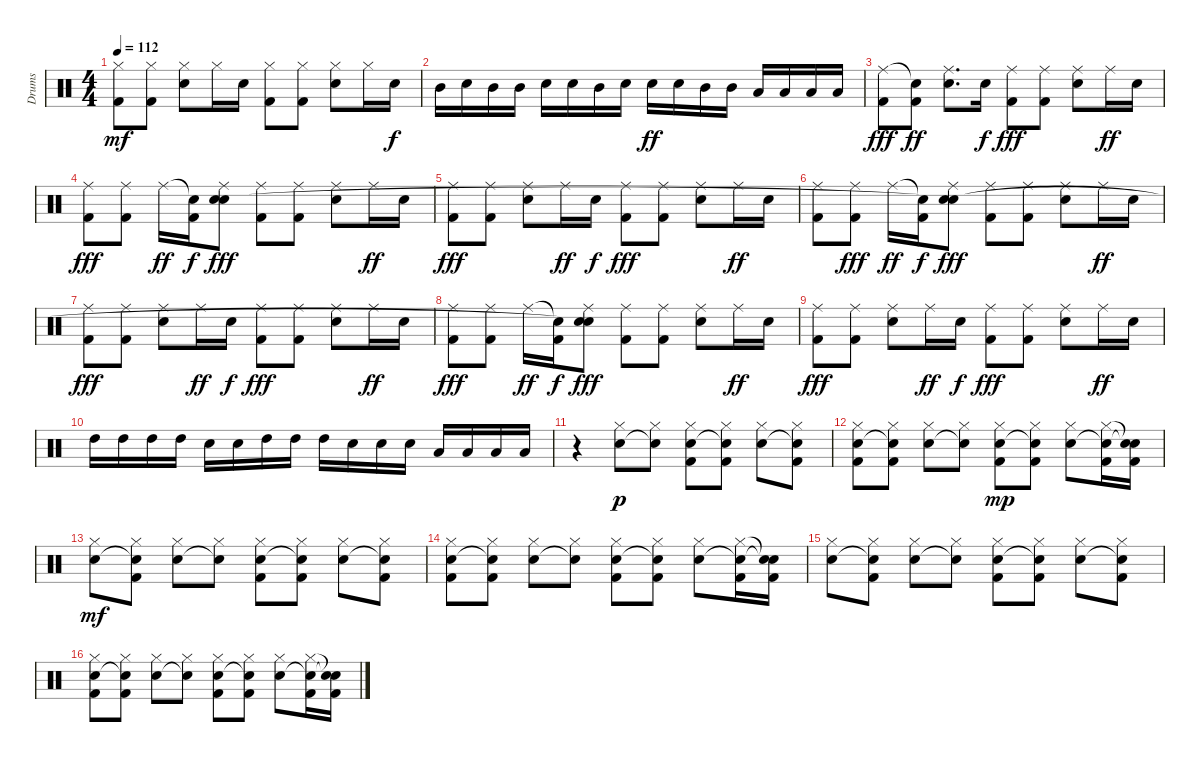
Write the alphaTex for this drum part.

\track ("Drums" "Drums") {instrument percussion}
\staff {score}
\articulation defaults
\ts (4 4)
\tempo 112
\clef neutral
\ks c
("Hi-Hat (closed)" "Kick (hit) 2").8{dy mf} ("Hi-Hat (closed)" "Kick (hit) 2").8 ("Hi-Hat (closed)" "Electric Snare (hit)").8 "Hi-Hat (closed)".16 "Electric Snare (hit)".16 ("Hi-Hat (closed)" "Kick (hit) 2").8 ("Hi-Hat (closed)" "Kick (hit) 2").8 ("Hi-Hat (closed)" "Electric Snare (hit)").8 "Hi-Hat (closed)".16 "Electric Snare (hit)".16{dy f} |
"Mid Tom (hit)".16 "Electric Snare (hit)".16 "Mid Tom (hit)".16 "Mid Tom (hit)".16 "Electric Snare (hit)".16 "Electric Snare (hit)".16 "Mid Tom (hit)".16 "Electric Snare (hit)".16 "Electric Snare (hit)".16{dy ff} "Electric Snare (hit)".16 "Mid Tom (hit)".16 "Mid Tom (hit)".16 "Low Tom (hit)".16 "Low Tom (hit)".16 "Low Tom (hit)".16 "Low Tom (hit)".16 |
("Ride (middle)" "Kick (hit) 2").8{dy fff} ("Snare (hit)"{t} "Kick (hit) 2").8{dy ff} ("Ride (middle)" "Electric Snare (hit)").8{d} "Electric Snare (hit)".16{dy f} ("Ride (middle)" "Kick (hit) 2").8{dy fff} ("Ride (middle)" "Kick (hit) 2").8 ("Ride (middle)" "Electric Snare (hit)").8 "Ride (middle)".16{dy ff} "Electric Snare (hit)".16 |
("Ride (middle)" "Kick (hit) 2").8{dy fff} ("Ride (middle)" "Kick (hit) 2").8 "Ride (middle)".16{dy ff} ("Snare (hit)"{t} "Kick (hit) 2").16{dy f} ("Ride (middle)" "Electric Snare (hit)" "Snare (hit)").8{dy fff} ("Ride (middle)" "Kick (hit) 2").8 ("Ride (middle)" "Kick (hit) 2").8 ("Ride (middle)" "Electric Snare (hit)").8 "Ride (middle)".16{dy ff} "Electric Snare (hit)".16 |
("Ride (middle)" "Kick (hit) 2").8{dy fff} ("Ride (middle)" "Kick (hit) 2").8 ("Ride (middle)" "Electric Snare (hit)").8 "Ride (middle)".16{dy ff} "Electric Snare (hit)".16{dy f} ("Ride (middle)" "Kick (hit) 2").8{dy fff} ("Ride (middle)" "Kick (hit) 2").8 ("Ride (middle)" "Electric Snare (hit)").8 "Ride (middle)".16{dy ff} "Electric Snare (hit)".16 |
("Ride (middle)" "Kick (hit) 2").8 ("Ride (middle)" "Kick (hit) 2").8{dy fff} "Ride (middle)".16{dy ff} ("Snare (hit)"{t} "Kick (hit) 2").16{dy f} ("Ride (middle)" "Electric Snare (hit)" "Snare (hit)"{t}).8{dy fff} ("Ride (middle)" "Kick (hit) 2").8 ("Ride (middle)" "Kick (hit) 2").8 ("Ride (middle)" "Electric Snare (hit)").8 "Ride (middle)".16{dy ff} "Electric Snare (hit)".16 |
("Ride (middle)" "Kick (hit) 2").8{dy fff} ("Ride (middle)" "Kick (hit) 2").8 ("Ride (middle)" "Electric Snare (hit)").8 "Ride (middle)".16{dy ff} "Electric Snare (hit)".16{dy f} ("Ride (middle)" "Kick (hit) 2").8{dy fff} ("Ride (middle)" "Kick (hit) 2").8 ("Ride (middle)" "Electric Snare (hit)").8 "Ride (middle)".16{dy ff} "Electric Snare (hit)".16 |
("Ride (middle)" "Kick (hit) 2").8{dy fff} ("Ride (middle)" "Kick (hit) 2").8 "Ride (middle)".16{dy ff} ("Snare (hit)"{t} "Kick (hit) 2").16{dy f} ("Ride (middle)" "Electric Snare (hit)" "Snare (hit)"{t}).8{dy fff} ("Ride (middle)" "Kick (hit) 2").8 ("Ride (middle)" "Kick (hit) 2").8 ("Ride (middle)" "Electric Snare (hit)").8 "Ride (middle)".16{dy ff} "Electric Snare (hit)".16 |
("Ride (middle)" "Kick (hit) 2").8{dy fff} ("Ride (middle)" "Kick (hit) 2").8 ("Ride (middle)" "Electric Snare (hit)").8 "Ride (middle)".16{dy ff} "Electric Snare (hit)".16{dy f} ("Ride (middle)" "Kick (hit) 2").8{dy fff} ("Ride (middle)" "Kick (hit) 2").8 ("Ride (middle)" "Electric Snare (hit)").8 "Ride (middle)".16{dy ff} "Electric Snare (hit)".16 |
"High Tom (hit)".16 "High Tom (hit)".16 "High Tom (hit)".16 "High Tom (hit)".16 "Electric Snare (hit)".16 "Electric Snare (hit)".16 "High Tom (hit)".16 "High Tom (hit)".16 "High Tom (hit)".16 "Electric Snare (hit)".16 "Electric Snare (hit)".16 "Electric Snare (hit)".16 "Low Tom (hit)".16 "Low Tom (hit)".16 "Low Tom (hit)".16 "Low Tom (hit)".16 |
r.4 ("Hi-Hat (closed)" "Electric Snare (hit)").8{dy p} ("Hi-Hat (closed)" "Snare (hit)"{t}).8 ("Hi-Hat (closed)" "Electric Snare (hit)" "Kick (hit) 2").8 ("Hi-Hat (closed)" "Snare (hit)"{t} "Kick (hit) 2").8 ("Hi-Hat (closed)" "Electric Snare (hit)").8 ("Hi-Hat (closed)" "Snare (hit)"{t} "Kick (hit) 2").8 |
("Hi-Hat (closed)" "Electric Snare (hit)" "Kick (hit) 2").8 ("Hi-Hat (closed)" "Snare (hit)"{t} "Kick (hit) 2").8 ("Hi-Hat (closed)" "Electric Snare (hit)").8 ("Hi-Hat (closed)" "Snare (hit)"{t}).8 ("Hi-Hat (closed)" "Electric Snare (hit)" "Kick (hit) 2").8{dy mp} ("Hi-Hat (closed)" "Snare (hit)"{t} "Kick (hit) 2").8 ("Hi-Hat (closed)" "Electric Snare (hit)").8 ("Hi-Hat (closed)" "Snare (hit)"{t} "Kick (hit) 2").16 ("Snare (hit)"{t} "Snare (hit)"{t} "Kick (hit) 2").16 |
("Hi-Hat (closed)" "Electric Snare (hit)").8{dy mf} ("Hi-Hat (closed)" "Snare (hit)"{t} "Kick (hit) 2").8 ("Hi-Hat (closed)" "Electric Snare (hit)").8 ("Hi-Hat (closed)" "Snare (hit)"{t}).8 ("Hi-Hat (closed)" "Electric Snare (hit)" "Kick (hit) 2").8 ("Hi-Hat (closed)" "Snare (hit)"{t} "Kick (hit) 2").8 ("Hi-Hat (closed)" "Electric Snare (hit)").8 ("Hi-Hat (closed)" "Snare (hit)"{t} "Kick (hit) 2").8 |
("Hi-Hat (closed)" "Electric Snare (hit)" "Kick (hit) 2").8 ("Hi-Hat (closed)" "Snare (hit)"{t} "Kick (hit) 2").8 ("Hi-Hat (closed)" "Electric Snare (hit)").8 ("Hi-Hat (closed)" "Snare (hit)"{t}).8 ("Hi-Hat (closed)" "Electric Snare (hit)" "Kick (hit) 2").8 ("Hi-Hat (closed)" "Snare (hit)"{t} "Kick (hit) 2").8 ("Hi-Hat (closed)" "Electric Snare (hit)").8 ("Hi-Hat (closed)" "Snare (hit)"{t} "Kick (hit) 2").16 ("Snare (hit)"{t} "Snare (hit)"{t} "Kick (hit) 2").16 |
("Hi-Hat (closed)" "Electric Snare (hit)").8 ("Hi-Hat (closed)" "Snare (hit)"{t} "Kick (hit) 2").8 ("Hi-Hat (closed)" "Electric Snare (hit)").8 ("Hi-Hat (closed)" "Snare (hit)"{t}).8 ("Hi-Hat (closed)" "Electric Snare (hit)" "Kick (hit) 2").8 ("Hi-Hat (closed)" "Snare (hit)"{t} "Kick (hit) 2").8 ("Hi-Hat (closed)" "Electric Snare (hit)").8 ("Hi-Hat (closed)" "Snare (hit)"{t} "Kick (hit) 2").8 |
("Hi-Hat (closed)" "Electric Snare (hit)" "Kick (hit) 2").8 ("Hi-Hat (closed)" "Snare (hit)"{t} "Kick (hit) 2").8 ("Hi-Hat (closed)" "Electric Snare (hit)").8 ("Hi-Hat (closed)" "Snare (hit)"{t}).8 ("Hi-Hat (closed)" "Electric Snare (hit)" "Kick (hit) 2").8 ("Hi-Hat (closed)" "Snare (hit)"{t} "Kick (hit) 2").8 ("Hi-Hat (closed)" "Electric Snare (hit)").8 ("Hi-Hat (closed)" "Snare (hit)"{t} "Kick (hit) 2").16 ("Snare (hit)"{t} "Snare (hit)"{t} "Kick (hit) 2").16
